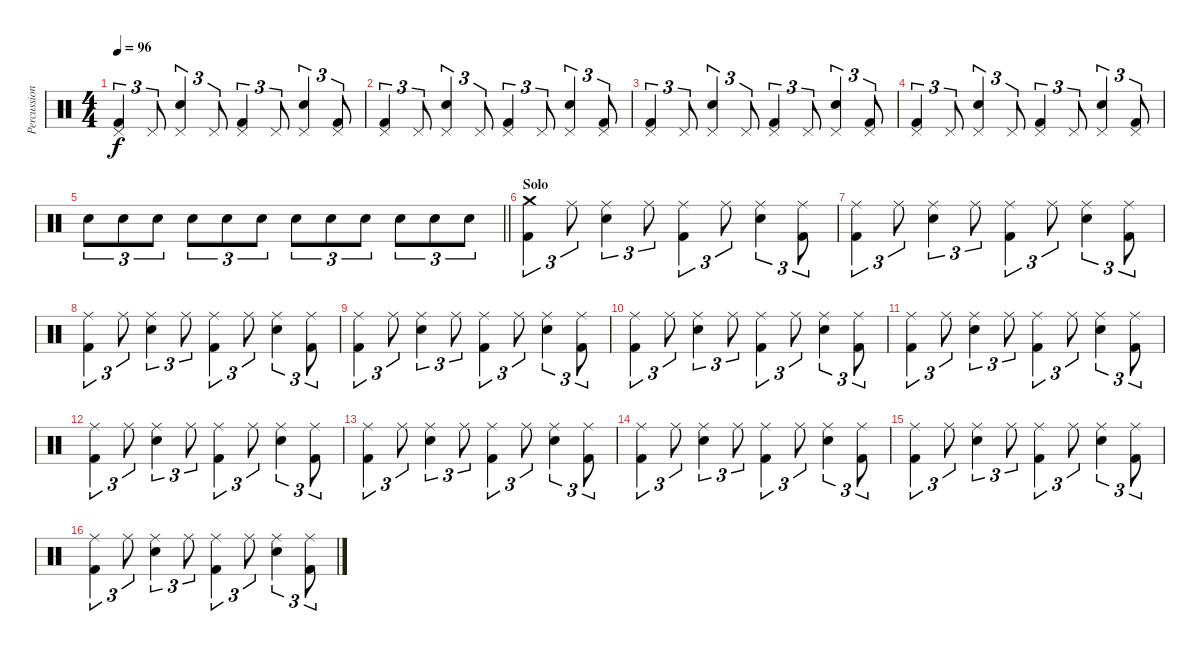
\track ("Percussioni" "Percussion") {instrument percussion}
\staff {score}
\articulation defaults
\ts (4 4)
\tempo 96
\clef neutral
\ks c
("Kick (hit) 2" "Pedal Hi-Hat (hit)").4{tu (3 2) dy f} "Pedal Hi-Hat (hit)".8{tu (3 2)} ("Electric Snare (hit)" "Pedal Hi-Hat (hit)").4{tu (3 2)} "Pedal Hi-Hat (hit)".8{tu (3 2)} ("Kick (hit) 2" "Pedal Hi-Hat (hit)").4{tu (3 2)} "Pedal Hi-Hat (hit)".8{tu (3 2)} ("Electric Snare (hit)" "Pedal Hi-Hat (hit)").4{tu (3 2)} ("Kick (hit) 2" "Pedal Hi-Hat (hit)").8{tu (3 2)} |
("Kick (hit) 2" "Pedal Hi-Hat (hit)").4{tu (3 2)} "Pedal Hi-Hat (hit)".8{tu (3 2)} ("Electric Snare (hit)" "Pedal Hi-Hat (hit)").4{tu (3 2)} "Pedal Hi-Hat (hit)".8{tu (3 2)} ("Kick (hit) 2" "Pedal Hi-Hat (hit)").4{tu (3 2)} "Pedal Hi-Hat (hit)".8{tu (3 2)} ("Electric Snare (hit)" "Pedal Hi-Hat (hit)").4{tu (3 2)} ("Kick (hit) 2" "Pedal Hi-Hat (hit)").8{tu (3 2)} |
("Kick (hit) 2" "Pedal Hi-Hat (hit)").4{tu (3 2)} "Pedal Hi-Hat (hit)".8{tu (3 2)} ("Electric Snare (hit)" "Pedal Hi-Hat (hit)").4{tu (3 2)} "Pedal Hi-Hat (hit)".8{tu (3 2)} ("Kick (hit) 2" "Pedal Hi-Hat (hit)").4{tu (3 2)} "Pedal Hi-Hat (hit)".8{tu (3 2)} ("Electric Snare (hit)" "Pedal Hi-Hat (hit)").4{tu (3 2)} ("Kick (hit) 2" "Pedal Hi-Hat (hit)").8{tu (3 2)} |
("Kick (hit) 2" "Pedal Hi-Hat (hit)").4{tu (3 2)} "Pedal Hi-Hat (hit)".8{tu (3 2)} ("Electric Snare (hit)" "Pedal Hi-Hat (hit)").4{tu (3 2)} "Pedal Hi-Hat (hit)".8{tu (3 2)} ("Kick (hit) 2" "Pedal Hi-Hat (hit)").4{tu (3 2)} "Pedal Hi-Hat (hit)".8{tu (3 2)} ("Electric Snare (hit)" "Pedal Hi-Hat (hit)").4{tu (3 2)} ("Kick (hit) 2" "Pedal Hi-Hat (hit)").8{tu (3 2)} |
\barLineRight lightlight "Electric Snare (hit)".8{tu (3 2)} "Electric Snare (hit)".8{tu (3 2)} "Electric Snare (hit)".8{tu (3 2)} "Electric Snare (hit)".8{tu (3 2)} "Electric Snare (hit)".8{tu (3 2)} "Electric Snare (hit)".8{tu (3 2)} "Electric Snare (hit)".8{tu (3 2)} "Electric Snare (hit)".8{tu (3 2)} "Electric Snare (hit)".8{tu (3 2)} "Electric Snare (hit)".8{tu (3 2)} "Electric Snare (hit)".8{tu (3 2)} "Electric Snare (hit)".8{tu (3 2)}
|
\section ("" "Solo")
("Kick (hit) 2" "Crash medium (hit)").4{tu (3 2)} "Ride (middle)".8{tu (3 2)} ("Electric Snare (hit)" "Ride (middle)").4{tu (3 2)} "Ride (middle)".8{tu (3 2)} ("Kick (hit) 2" "Ride (middle)").4{tu (3 2)} "Ride (middle)".8{tu (3 2)} ("Electric Snare (hit)" "Ride (middle)").4{tu (3 2)} ("Kick (hit) 2" "Ride (middle)").8{tu (3 2)} |
("Kick (hit) 2" "Ride (middle)").4{tu (3 2)} "Ride (middle)".8{tu (3 2)} ("Electric Snare (hit)" "Ride (middle)").4{tu (3 2)} "Ride (middle)".8{tu (3 2)} ("Kick (hit) 2" "Ride (middle)").4{tu (3 2)} "Ride (middle)".8{tu (3 2)} ("Electric Snare (hit)" "Ride (middle)").4{tu (3 2)} ("Kick (hit) 2" "Ride (middle)").8{tu (3 2)} |
("Kick (hit) 2" "Ride (middle)").4{tu (3 2)} "Ride (middle)".8{tu (3 2)} ("Electric Snare (hit)" "Ride (middle)").4{tu (3 2)} "Ride (middle)".8{tu (3 2)} ("Kick (hit) 2" "Ride (middle)").4{tu (3 2)} "Ride (middle)".8{tu (3 2)} ("Electric Snare (hit)" "Ride (middle)").4{tu (3 2)} ("Kick (hit) 2" "Ride (middle)").8{tu (3 2)} |
("Kick (hit) 2" "Ride (middle)").4{tu (3 2)} "Ride (middle)".8{tu (3 2)} ("Electric Snare (hit)" "Ride (middle)").4{tu (3 2)} "Ride (middle)".8{tu (3 2)} ("Kick (hit) 2" "Ride (middle)").4{tu (3 2)} "Ride (middle)".8{tu (3 2)} ("Electric Snare (hit)" "Ride (middle)").4{tu (3 2)} ("Kick (hit) 2" "Ride (middle)").8{tu (3 2)} |
("Kick (hit) 2" "Ride (middle)").4{tu (3 2)} "Ride (middle)".8{tu (3 2)} ("Electric Snare (hit)" "Ride (middle)").4{tu (3 2)} "Ride (middle)".8{tu (3 2)} ("Kick (hit) 2" "Ride (middle)").4{tu (3 2)} "Ride (middle)".8{tu (3 2)} ("Electric Snare (hit)" "Ride (middle)").4{tu (3 2)} ("Kick (hit) 2" "Ride (middle)").8{tu (3 2)} |
("Kick (hit) 2" "Ride (middle)").4{tu (3 2)} "Ride (middle)".8{tu (3 2)} ("Electric Snare (hit)" "Ride (middle)").4{tu (3 2)} "Ride (middle)".8{tu (3 2)} ("Kick (hit) 2" "Ride (middle)").4{tu (3 2)} "Ride (middle)".8{tu (3 2)} ("Electric Snare (hit)" "Ride (middle)").4{tu (3 2)} ("Kick (hit) 2" "Ride (middle)").8{tu (3 2)} |
("Kick (hit) 2" "Ride (middle)").4{tu (3 2)} "Ride (middle)".8{tu (3 2)} ("Electric Snare (hit)" "Ride (middle)").4{tu (3 2)} "Ride (middle)".8{tu (3 2)} ("Kick (hit) 2" "Ride (middle)").4{tu (3 2)} "Ride (middle)".8{tu (3 2)} ("Electric Snare (hit)" "Ride (middle)").4{tu (3 2)} ("Kick (hit) 2" "Ride (middle)").8{tu (3 2)} |
("Kick (hit) 2" "Ride (middle)").4{tu (3 2)} "Ride (middle)".8{tu (3 2)} ("Electric Snare (hit)" "Ride (middle)").4{tu (3 2)} "Ride (middle)".8{tu (3 2)} ("Kick (hit) 2" "Ride (middle)").4{tu (3 2)} "Ride (middle)".8{tu (3 2)} ("Electric Snare (hit)" "Ride (middle)").4{tu (3 2)} ("Kick (hit) 2" "Ride (middle)").8{tu (3 2)} |
("Kick (hit) 2" "Ride (middle)").4{tu (3 2)} "Ride (middle)".8{tu (3 2)} ("Electric Snare (hit)" "Ride (middle)").4{tu (3 2)} "Ride (middle)".8{tu (3 2)} ("Kick (hit) 2" "Ride (middle)").4{tu (3 2)} "Ride (middle)".8{tu (3 2)} ("Electric Snare (hit)" "Ride (middle)").4{tu (3 2)} ("Kick (hit) 2" "Ride (middle)").8{tu (3 2)} |
("Kick (hit) 2" "Ride (middle)").4{tu (3 2)} "Ride (middle)".8{tu (3 2)} ("Electric Snare (hit)" "Ride (middle)").4{tu (3 2)} "Ride (middle)".8{tu (3 2)} ("Kick (hit) 2" "Ride (middle)").4{tu (3 2)} "Ride (middle)".8{tu (3 2)} ("Electric Snare (hit)" "Ride (middle)").4{tu (3 2)} ("Kick (hit) 2" "Ride (middle)").8{tu (3 2)} |
("Kick (hit) 2" "Ride (middle)").4{tu (3 2)} "Ride (middle)".8{tu (3 2)} ("Electric Snare (hit)" "Ride (middle)").4{tu (3 2)} "Ride (middle)".8{tu (3 2)} ("Kick (hit) 2" "Ride (middle)").4{tu (3 2)} "Ride (middle)".8{tu (3 2)} ("Electric Snare (hit)" "Ride (middle)").4{tu (3 2)} ("Kick (hit) 2" "Ride (middle)").8{tu (3 2)}
